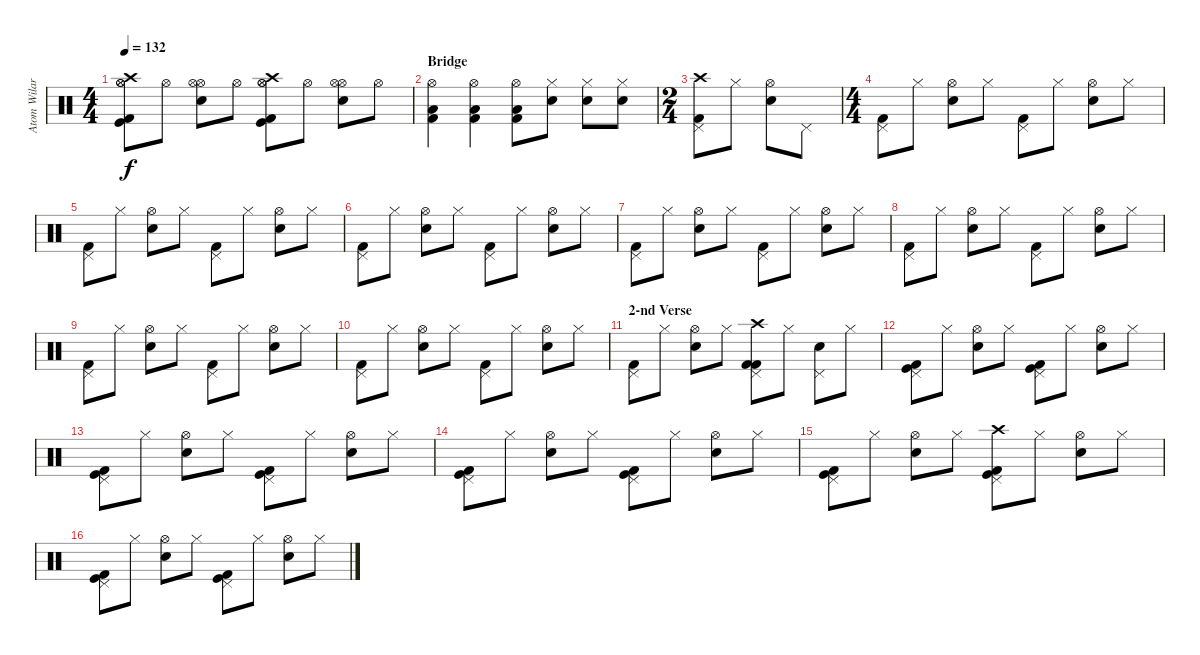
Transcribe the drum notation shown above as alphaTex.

\track ("Atom Wilard or Ron Welty ?" "Atom Wilar") {instrument percussion}
\staff {score}
\articulation defaults
\ts (4 4)
\tempo 132
\clef neutral
\ks c
("Hi-Hat (open)" "Hi-Hat (open)" "Crash high (hit)" "Kick (hit)" "Kick (hit) 2").8{dy f} "Hi-Hat (open)".8 ("Hi-Hat (open)" "Hi-Hat (open)" "Electric Snare (hit)").8 "Hi-Hat (open)".8 ("Hi-Hat (open)" "Hi-Hat (open)" "Crash high (hit)" "Kick (hit)" "Kick (hit) 2").8 "Hi-Hat (open)".8 ("Hi-Hat (open)" "Hi-Hat (open)" "Electric Snare (hit)").8 "Hi-Hat (open)".8 |
\section ("" "Bridge")
("Hi-Hat (open)" "Kick (hit) 2" "Low Floor Tom (hit)").4 ("Hi-Hat (open)" "Kick (hit) 2" "Low Floor Tom (hit)").4 ("Hi-Hat (open)" "Kick (hit) 2" "Low Floor Tom (hit)").8 ("Hi-Hat (closed)" "Electric Snare (hit)").8 ("Hi-Hat (closed)" "Electric Snare (hit)").8 ("Hi-Hat (closed)" "Electric Snare (hit)").8 |
\ts (2 4)
("Pedal Hi-Hat (hit)" "Crash high (hit)" "Kick (hit) 2").8 "Hi-Hat (closed)".8 ("Hi-Hat (open)" "Electric Snare (hit)").8 "Pedal Hi-Hat (hit)".8 |
\ts (4 4)
("Pedal Hi-Hat (hit)" "Kick (hit) 2").8 "Hi-Hat (closed)".8 ("Hi-Hat (open)" "Electric Snare (hit)").8 "Hi-Hat (closed)".8 ("Pedal Hi-Hat (hit)" "Kick (hit) 2").8 "Hi-Hat (closed)".8 ("Hi-Hat (open)" "Electric Snare (hit)").8 "Hi-Hat (closed)".8 |
("Pedal Hi-Hat (hit)" "Kick (hit) 2").8 "Hi-Hat (closed)".8 ("Hi-Hat (open)" "Electric Snare (hit)").8 "Hi-Hat (closed)".8 ("Pedal Hi-Hat (hit)" "Kick (hit) 2").8 "Hi-Hat (closed)".8 ("Hi-Hat (open)" "Electric Snare (hit)").8 "Hi-Hat (closed)".8 |
("Pedal Hi-Hat (hit)" "Kick (hit) 2").8 "Hi-Hat (closed)".8 ("Hi-Hat (open)" "Electric Snare (hit)").8 "Hi-Hat (closed)".8 ("Pedal Hi-Hat (hit)" "Kick (hit) 2").8 "Hi-Hat (closed)".8 ("Hi-Hat (open)" "Electric Snare (hit)").8 "Hi-Hat (closed)".8 |
("Pedal Hi-Hat (hit)" "Kick (hit) 2").8 "Hi-Hat (closed)".8 ("Hi-Hat (open)" "Electric Snare (hit)").8 "Hi-Hat (closed)".8 ("Pedal Hi-Hat (hit)" "Kick (hit) 2").8 "Hi-Hat (closed)".8 ("Hi-Hat (open)" "Electric Snare (hit)").8 "Hi-Hat (closed)".8 |
("Pedal Hi-Hat (hit)" "Kick (hit) 2").8 "Hi-Hat (closed)".8 ("Hi-Hat (open)" "Electric Snare (hit)").8 "Hi-Hat (closed)".8 ("Pedal Hi-Hat (hit)" "Kick (hit) 2").8 "Hi-Hat (closed)".8 ("Hi-Hat (open)" "Electric Snare (hit)").8 "Hi-Hat (closed)".8 |
("Pedal Hi-Hat (hit)" "Kick (hit) 2").8 "Hi-Hat (closed)".8 ("Hi-Hat (open)" "Electric Snare (hit)").8 "Hi-Hat (closed)".8 ("Pedal Hi-Hat (hit)" "Kick (hit) 2").8 "Hi-Hat (closed)".8 ("Hi-Hat (open)" "Electric Snare (hit)").8 "Hi-Hat (closed)".8 |
("Pedal Hi-Hat (hit)" "Kick (hit) 2").8 "Hi-Hat (closed)".8 ("Hi-Hat (open)" "Electric Snare (hit)").8 "Hi-Hat (closed)".8 ("Pedal Hi-Hat (hit)" "Kick (hit) 2").8 "Hi-Hat (closed)".8 ("Hi-Hat (open)" "Electric Snare (hit)").8 "Hi-Hat (closed)".8 |
\section ("" "2-nd Verse")
("Pedal Hi-Hat (hit)" "Kick (hit) 2").8 "Hi-Hat (closed)".8 ("Hi-Hat (open)" "Electric Snare (hit)").8 "Hi-Hat (closed)".8 ("Pedal Hi-Hat (hit)" "Crash high (hit)" "Kick (hit) 2" "Kick (hit) 2").8 "Hi-Hat (closed)".8 ("Pedal Hi-Hat (hit)" "Electric Snare (hit)").8 "Hi-Hat (closed)".8 |
("Pedal Hi-Hat (hit)" "Kick (hit)" "Kick (hit) 2").8 "Hi-Hat (closed)".8 ("Hi-Hat (open)" "Electric Snare (hit)").8 "Hi-Hat (closed)".8 ("Pedal Hi-Hat (hit)" "Kick (hit)" "Kick (hit) 2").8 "Hi-Hat (closed)".8 ("Hi-Hat (open)" "Electric Snare (hit)").8 "Hi-Hat (closed)".8 |
("Pedal Hi-Hat (hit)" "Kick (hit)" "Kick (hit) 2").8 "Hi-Hat (closed)".8 ("Hi-Hat (open)" "Electric Snare (hit)").8 "Hi-Hat (closed)".8 ("Pedal Hi-Hat (hit)" "Kick (hit)" "Kick (hit) 2").8 "Hi-Hat (closed)".8 ("Hi-Hat (open)" "Electric Snare (hit)").8 "Hi-Hat (closed)".8 |
("Pedal Hi-Hat (hit)" "Kick (hit)" "Kick (hit) 2").8 "Hi-Hat (closed)".8 ("Hi-Hat (open)" "Electric Snare (hit)").8 "Hi-Hat (closed)".8 ("Pedal Hi-Hat (hit)" "Kick (hit)" "Kick (hit) 2").8 "Hi-Hat (closed)".8 ("Hi-Hat (open)" "Electric Snare (hit)").8 "Hi-Hat (closed)".8 |
("Pedal Hi-Hat (hit)" "Kick (hit)" "Kick (hit) 2").8 "Hi-Hat (closed)".8 ("Hi-Hat (open)" "Electric Snare (hit)").8 "Hi-Hat (closed)".8 ("Pedal Hi-Hat (hit)" "Crash high (hit)" "Kick (hit)" "Kick (hit) 2").8 "Hi-Hat (closed)".8 ("Hi-Hat (open)" "Electric Snare (hit)").8 "Hi-Hat (closed)".8 |
("Pedal Hi-Hat (hit)" "Kick (hit)" "Kick (hit) 2").8 "Hi-Hat (closed)".8 ("Hi-Hat (open)" "Electric Snare (hit)").8 "Hi-Hat (closed)".8 ("Pedal Hi-Hat (hit)" "Kick (hit)" "Kick (hit) 2").8 "Hi-Hat (closed)".8 ("Hi-Hat (open)" "Electric Snare (hit)").8 "Hi-Hat (closed)".8
